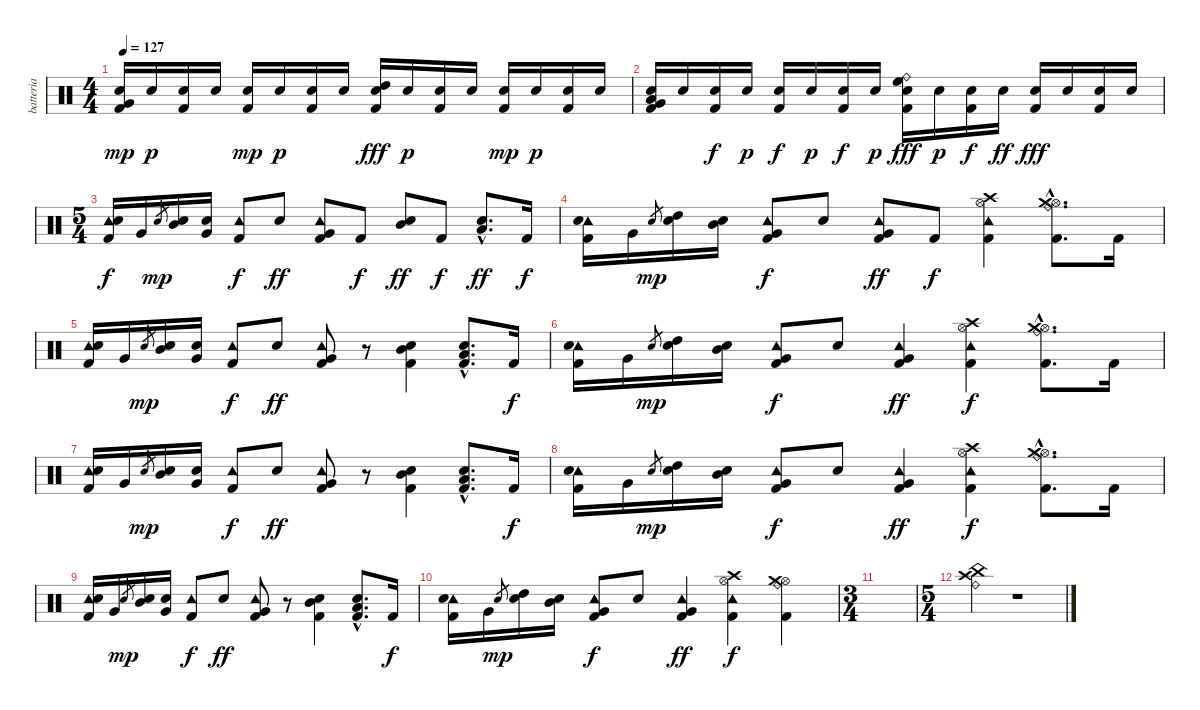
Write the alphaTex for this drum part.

\track ("batteria" "batteria") {instrument percussion}
\staff {score}
\articulation defaults
\ts (4 4)
\tempo 127
\clef neutral
\ks c
("Electric Snare (hit)" "Very Low Tom (hit)" "Kick (hit) 2").16{dy mp} "Electric Snare (hit)".16{dy p} ("Electric Snare (hit)" "Kick (hit) 2").16 "Electric Snare (hit)".16 ("Electric Snare (hit)" "Kick (hit) 2").16{dy mp} "Electric Snare (hit)".16{dy p} ("Electric Snare (hit)" "Kick (hit) 2").16 "Electric Snare (hit)".16 ("High Tom (hit)" "Electric Snare (hit)" "Kick (hit) 2").16{dy fff} "Electric Snare (hit)".16{dy p} ("Electric Snare (hit)" "Kick (hit) 2").16 "Electric Snare (hit)".16 ("Electric Snare (hit)" "Kick (hit) 2").16{dy mp} "Electric Snare (hit)".16{dy p} ("Electric Snare (hit)" "Kick (hit) 2").16 "Electric Snare (hit)".16 |
("Low Tom (hit)" "Electric Snare (hit)" "Very Low Tom (hit)" "Kick (hit) 2").16 "Electric Snare (hit)".16 ("Electric Snare (hit)" "Kick (hit) 2").16{dy f} "Electric Snare (hit)".16{dy p} ("Electric Snare (hit)" "Kick (hit) 2").16{dy f} "Electric Snare (hit)".16{dy p} ("Electric Snare (hit)" "Kick (hit) 2").16{dy f} "Electric Snare (hit)".16{dy p} ("Ride (bell)" "Electric Snare (hit)" "High Floor Tom (hit)" "Kick (hit) 2").16{dy fff} "Electric Snare (hit)".16{dy p} ("Electric Snare (hit)" "Kick (hit) 2").16{dy f} "Electric Snare (hit)".16{dy ff} ("Electric Snare (hit)" "Kick (hit) 2").16{dy fff} "Electric Snare (hit)".16 ("Electric Snare (hit)" "Kick (hit) 2").16 "Electric Snare (hit)".16 |
\ts (5 4)
("Tambourine (hit)" "Electric Snare (hit)" "Kick (hit) 2").16{dy f} "Very Low Tom (hit)".16 "Electric Snare (hit)".8{gr dy mp} ("Electric Snare (hit)" "Mid Tom (hit)").16 ("Electric Snare (hit)" "Very Low Tom (hit)").16 ("Tambourine (hit)" "Kick (hit) 2").8{dy f} "Electric Snare (hit)".8{dy ff} ("Tambourine (hit)" "Very Low Tom (hit)" "Kick (hit) 2").8 "Kick (hit) 2".8{dy f} ("Electric Snare (hit)" "Mid Tom (hit)").8{dy ff} "Kick (hit) 2".8{dy f} ("Electric Snare (hit)"{hac} "Low Tom (hit)"{hac}).8{d dy ff} "Kick (hit) 2".16{dy f} |
("Tambourine (hit)" "Electric Snare (hit)" "Kick (hit) 2").16 "Very Low Tom (hit)".16 "Electric Snare (hit)".8{gr dy mp} ("High Tom (hit)" "Electric Snare (hit)").16 ("Electric Snare (hit)" "Mid Tom (hit)").16 ("Tambourine (hit)" "Very Low Tom (hit)" "Kick (hit) 2").8{dy f} "Electric Snare (hit)".8 ("Tambourine (hit)" "Very Low Tom (hit)" "Kick (hit) 2").8{dy ff} "Kick (hit) 2".8{dy f} ("Hi-Hat (open)" "Tambourine (hit)" "Crash high (hit)" "Kick (hit) 2").4 ("Ride (bell)"{hac} "Hi-Hat (open)"{hac} "Crash medium (hit)"{hac} "Kick (hit) 2"{hac}).8{d} "Kick (hit) 2".16 |
("Tambourine (hit)" "Electric Snare (hit)" "Kick (hit) 2").16 "Very Low Tom (hit)".16 "Electric Snare (hit)".8{gr dy mp} ("Electric Snare (hit)" "Mid Tom (hit)").16 ("Electric Snare (hit)" "Very Low Tom (hit)").16 ("Tambourine (hit)" "Kick (hit) 2").8{dy f} "Electric Snare (hit)".8{dy ff} ("Tambourine (hit)" "Very Low Tom (hit)" "Kick (hit) 2").8 r.8 ("Electric Snare (hit)" "Mid Tom (hit)" "Kick (hit) 2").4 ("Electric Snare (hit)"{hac} "Low Tom (hit)"{hac} "Kick (hit) 2"{hac}).8{d} "Kick (hit) 2".16{dy f} |
("Tambourine (hit)" "Electric Snare (hit)" "Kick (hit) 2").16 "Very Low Tom (hit)".16 "Electric Snare (hit)".8{gr dy mp} ("High Tom (hit)" "Electric Snare (hit)").16 ("Electric Snare (hit)" "Mid Tom (hit)").16 ("Tambourine (hit)" "Very Low Tom (hit)" "Kick (hit) 2").8{dy f} "Electric Snare (hit)".8 ("Tambourine (hit)" "Very Low Tom (hit)" "Kick (hit) 2").4{dy ff} ("Hi-Hat (open)" "Tambourine (hit)" "Crash high (hit)" "Kick (hit) 2").4{dy f} ("Ride (bell)"{hac} "Hi-Hat (open)"{hac} "Crash medium (hit)"{hac} "Kick (hit) 2"{hac}).8{d} "Kick (hit) 2".16 |
("Tambourine (hit)" "Electric Snare (hit)" "Kick (hit) 2").16 "Very Low Tom (hit)".16 "Electric Snare (hit)".8{gr dy mp} ("Electric Snare (hit)" "Mid Tom (hit)").16 ("Electric Snare (hit)" "Very Low Tom (hit)").16 ("Tambourine (hit)" "Kick (hit) 2").8{dy f} "Electric Snare (hit)".8{dy ff} ("Tambourine (hit)" "Very Low Tom (hit)" "Kick (hit) 2").8 r.8 ("Electric Snare (hit)" "Mid Tom (hit)" "Kick (hit) 2").4 ("Electric Snare (hit)"{hac} "Low Tom (hit)"{hac} "Kick (hit) 2"{hac}).8{d} "Kick (hit) 2".16{dy f} |
("Tambourine (hit)" "Electric Snare (hit)" "Kick (hit) 2").16 "Very Low Tom (hit)".16 "Electric Snare (hit)".8{gr dy mp} ("High Tom (hit)" "Electric Snare (hit)").16 ("Electric Snare (hit)" "Mid Tom (hit)").16 ("Tambourine (hit)" "Very Low Tom (hit)" "Kick (hit) 2").8{dy f} "Electric Snare (hit)".8 ("Tambourine (hit)" "Very Low Tom (hit)" "Kick (hit) 2").4{dy ff} ("Hi-Hat (open)" "Tambourine (hit)" "Crash high (hit)" "Kick (hit) 2").4{dy f} ("Ride (bell)"{hac} "Hi-Hat (open)"{hac} "Crash medium (hit)"{hac} "Kick (hit) 2"{hac}).8{d} "Kick (hit) 2".16 |
("Tambourine (hit)" "Electric Snare (hit)" "Kick (hit) 2").16 "Very Low Tom (hit)".16 "Electric Snare (hit)".8{gr dy mp} ("Electric Snare (hit)" "Mid Tom (hit)").16 ("Electric Snare (hit)" "Very Low Tom (hit)").16 ("Tambourine (hit)" "Kick (hit) 2").8{dy f} "Electric Snare (hit)".8{dy ff} ("Tambourine (hit)" "Very Low Tom (hit)" "Kick (hit) 2").8 r.8 ("Electric Snare (hit)" "Mid Tom (hit)" "Kick (hit) 2").4 ("Electric Snare (hit)"{hac} "Low Tom (hit)"{hac} "Kick (hit) 2"{hac}).8{d} "Kick (hit) 2".16{dy f} |
("Tambourine (hit)" "Electric Snare (hit)" "Kick (hit) 2").16 "Very Low Tom (hit)".16 "Electric Snare (hit)".8{gr dy mp} ("High Tom (hit)" "Electric Snare (hit)").16 ("Electric Snare (hit)" "Mid Tom (hit)").16 ("Tambourine (hit)" "Very Low Tom (hit)" "Kick (hit) 2").8{dy f} "Electric Snare (hit)".8 ("Tambourine (hit)" "Very Low Tom (hit)" "Kick (hit) 2").4{dy ff} ("Hi-Hat (open)" "Tambourine (hit)" "Crash high (hit)" "Kick (hit) 2").4{dy f} ("Ride (bell)" "Hi-Hat (open)" "Crash medium (hit)" "Kick (hit) 2").4 |
\ts (3 4)
|
\ts (5 4)
("Ride (bell)" "Crash high (hit)" "China (hit)").4 r.1
